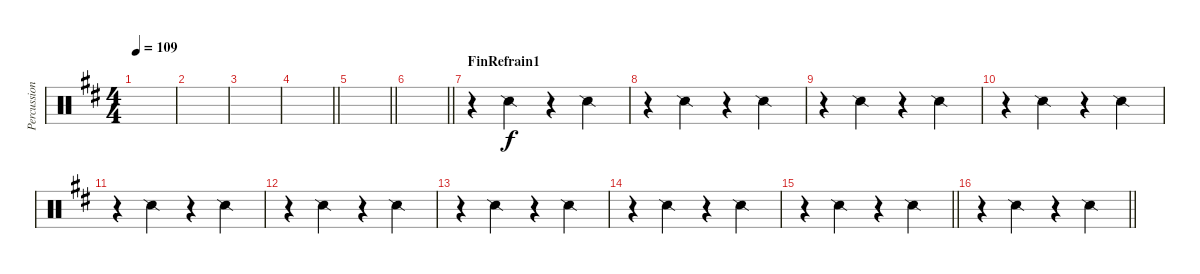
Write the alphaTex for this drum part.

\track ("Percussions" "Percussion") {instrument percussion}
\staff {score}
\articulation defaults
\ts (4 4)
\tempo 109
\clef neutral
\ks d
|
|
|
\barLineRight lightlight
|
\barLineRight lightlight
|
\barLineRight lightlight
|
\section ("" "FinRefrain1")
r.4 "Snare (side stick) 2".4 r.4 "Snare (side stick) 2".4 |
r.4 "Snare (side stick) 2".4 r.4 "Snare (side stick) 2".4 |
r.4 "Snare (side stick) 2".4 r.4 "Snare (side stick) 2".4 |
r.4 "Snare (side stick) 2".4 r.4 "Snare (side stick) 2".4 |
r.4 "Snare (side stick) 2".4 r.4 "Snare (side stick) 2".4 |
r.4 "Snare (side stick) 2".4 r.4 "Snare (side stick) 2".4 |
r.4 "Snare (side stick) 2".4 r.4 "Snare (side stick) 2".4 |
r.4 "Snare (side stick) 2".4 r.4 "Snare (side stick) 2".4 |
\barLineRight lightlight
r.4 "Snare (side stick) 2".4 r.4 "Snare (side stick) 2".4 |
\barLineRight lightlight
r.4 "Snare (side stick) 2".4 r.4 "Snare (side stick) 2".4
